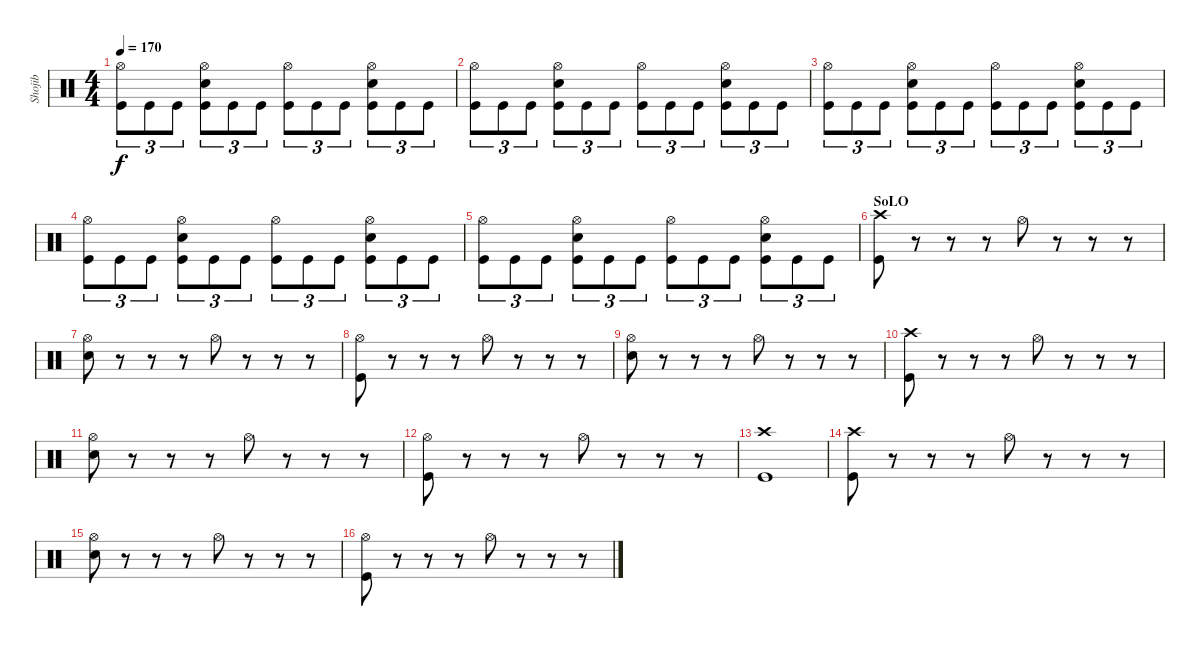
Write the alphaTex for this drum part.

\track ("Shojib" "Shojib") {instrument percussion}
\staff {score}
\articulation defaults
\ts (4 4)
\tempo 170
\clef neutral
\ks c
("Hi-Hat (open)" "Kick (hit)").8{tu (3 2) dy f} "Kick (hit)".8{tu (3 2)} "Kick (hit)".8{tu (3 2)} ("Hi-Hat (open)" "Electric Snare (hit)" "Kick (hit)").8{tu (3 2)} "Kick (hit)".8{tu (3 2)} "Kick (hit)".8{tu (3 2)} ("Hi-Hat (open)" "Kick (hit)").8{tu (3 2)} "Kick (hit)".8{tu (3 2)} "Kick (hit)".8{tu (3 2)} ("Hi-Hat (open)" "Electric Snare (hit)" "Kick (hit)").8{tu (3 2)} "Kick (hit)".8{tu (3 2)} "Kick (hit)".8{tu (3 2)} |
("Hi-Hat (open)" "Kick (hit)").8{tu (3 2)} "Kick (hit)".8{tu (3 2)} "Kick (hit)".8{tu (3 2)} ("Hi-Hat (open)" "Electric Snare (hit)" "Kick (hit)").8{tu (3 2)} "Kick (hit)".8{tu (3 2)} "Kick (hit)".8{tu (3 2)} ("Hi-Hat (open)" "Kick (hit)").8{tu (3 2)} "Kick (hit)".8{tu (3 2)} "Kick (hit)".8{tu (3 2)} ("Hi-Hat (open)" "Electric Snare (hit)" "Kick (hit)").8{tu (3 2)} "Kick (hit)".8{tu (3 2)} "Kick (hit)".8{tu (3 2)} |
("Hi-Hat (open)" "Kick (hit)").8{tu (3 2)} "Kick (hit)".8{tu (3 2)} "Kick (hit)".8{tu (3 2)} ("Hi-Hat (open)" "Electric Snare (hit)" "Kick (hit)").8{tu (3 2)} "Kick (hit)".8{tu (3 2)} "Kick (hit)".8{tu (3 2)} ("Hi-Hat (open)" "Kick (hit)").8{tu (3 2)} "Kick (hit)".8{tu (3 2)} "Kick (hit)".8{tu (3 2)} ("Hi-Hat (open)" "Electric Snare (hit)" "Kick (hit)").8{tu (3 2)} "Kick (hit)".8{tu (3 2)} "Kick (hit)".8{tu (3 2)} |
("Hi-Hat (open)" "Kick (hit)").8{tu (3 2)} "Kick (hit)".8{tu (3 2)} "Kick (hit)".8{tu (3 2)} ("Hi-Hat (open)" "Electric Snare (hit)" "Kick (hit)").8{tu (3 2)} "Kick (hit)".8{tu (3 2)} "Kick (hit)".8{tu (3 2)} ("Hi-Hat (open)" "Kick (hit)").8{tu (3 2)} "Kick (hit)".8{tu (3 2)} "Kick (hit)".8{tu (3 2)} ("Hi-Hat (open)" "Electric Snare (hit)" "Kick (hit)").8{tu (3 2)} "Kick (hit)".8{tu (3 2)} "Kick (hit)".8{tu (3 2)} |
("Hi-Hat (open)" "Kick (hit)").8{tu (3 2)} "Kick (hit)".8{tu (3 2)} "Kick (hit)".8{tu (3 2)} ("Hi-Hat (open)" "Electric Snare (hit)" "Kick (hit)").8{tu (3 2)} "Kick (hit)".8{tu (3 2)} "Kick (hit)".8{tu (3 2)} ("Hi-Hat (open)" "Kick (hit)").8{tu (3 2)} "Kick (hit)".8{tu (3 2)} "Kick (hit)".8{tu (3 2)} ("Hi-Hat (open)" "Electric Snare (hit)" "Kick (hit)").8{tu (3 2)} "Kick (hit)".8{tu (3 2)} "Kick (hit)".8{tu (3 2)} |
\section ("" "SoLO")
("Crash high (hit)" "Kick (hit)").8 r.8 r.8 r.8 "Hi-Hat (open)".8 r.8 r.8 r.8 |
("Electric Snare (hit)" "Hi-Hat (open)").8 r.8 r.8 r.8 "Hi-Hat (open)".8 r.8 r.8 r.8 |
("Hi-Hat (open)" "Kick (hit)").8 r.8 r.8 r.8 "Hi-Hat (open)".8 r.8 r.8 r.8 |
("Electric Snare (hit)" "Hi-Hat (open)").8 r.8 r.8 r.8 "Hi-Hat (open)".8 r.8 r.8 r.8 |
("Crash high (hit)" "Kick (hit)").8 r.8 r.8 r.8 "Hi-Hat (open)".8 r.8 r.8 r.8 |
("Electric Snare (hit)" "Hi-Hat (open)").8 r.8 r.8 r.8 "Hi-Hat (open)".8 r.8 r.8 r.8 |
("Hi-Hat (open)" "Kick (hit)").8 r.8 r.8 r.8 "Hi-Hat (open)".8 r.8 r.8 r.8 |
("Crash high (hit)" "Kick (hit)").1 |
("Crash high (hit)" "Kick (hit)").8 r.8 r.8 r.8 "Hi-Hat (open)".8 r.8 r.8 r.8 |
("Electric Snare (hit)" "Hi-Hat (open)").8 r.8 r.8 r.8 "Hi-Hat (open)".8 r.8 r.8 r.8 |
("Hi-Hat (open)" "Kick (hit)").8 r.8 r.8 r.8 "Hi-Hat (open)".8 r.8 r.8 r.8
